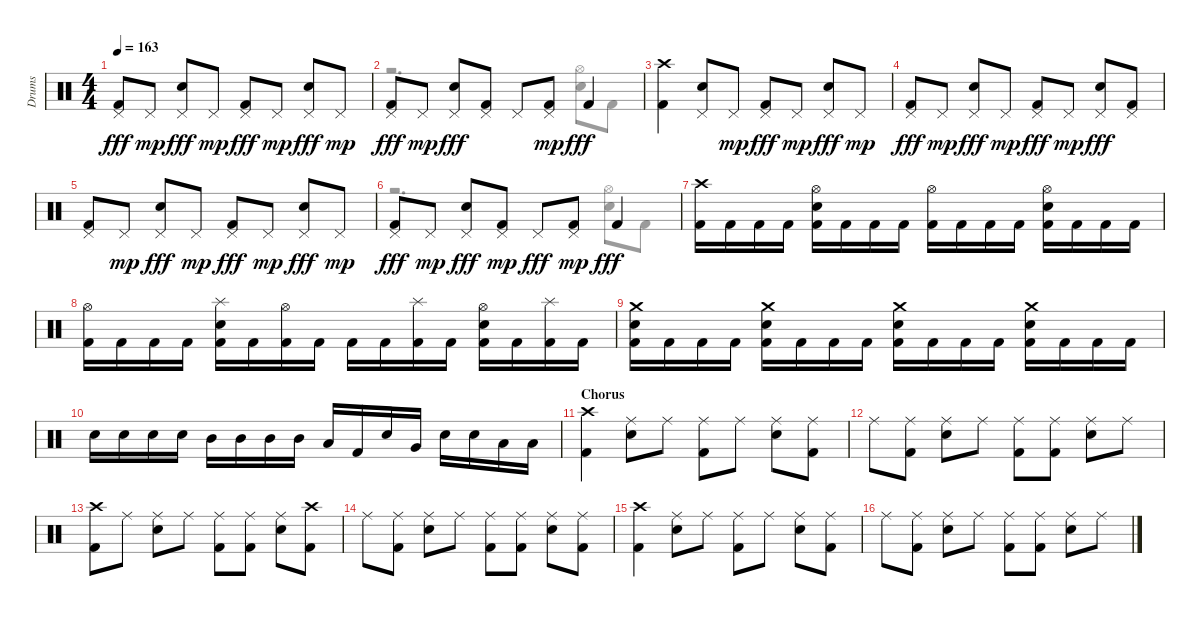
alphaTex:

\track ("Drums" "Drums") {instrument percussion}
\staff {score}
\articulation defaults
\voice
\ts (4 4)
\tempo 163
\clef neutral
\ks aminor
("Kick (hit) 2" "Pedal Hi-Hat (hit)").8{dy fff} "Pedal Hi-Hat (hit)".8{dy mp} ("Snare (hit) 2" "Pedal Hi-Hat (hit)").8{dy fff} "Pedal Hi-Hat (hit)".8{dy mp} ("Kick (hit) 2" "Pedal Hi-Hat (hit)").8{dy fff} "Pedal Hi-Hat (hit)".8{dy mp} ("Snare (hit) 2" "Pedal Hi-Hat (hit)").8{dy fff} "Pedal Hi-Hat (hit)".8{dy mp} |
("Kick (hit) 2" "Pedal Hi-Hat (hit)").8{dy fff} "Pedal Hi-Hat (hit)".8{dy mp} ("Snare (hit) 2" "Pedal Hi-Hat (hit)").8{dy fff} ("Kick (hit) 2" "Pedal Hi-Hat (hit)").8 "Pedal Hi-Hat (hit)".8 ("Pedal Hi-Hat (hit)" "Kick (hit) 2").8{dy mp} "Kick (hit) 2".4{dy fff} |
("Kick (hit) 2" "Crash high (hit)").4 ("Snare (hit) 2" "Pedal Hi-Hat (hit)").8 "Pedal Hi-Hat (hit)".8{dy mp} ("Kick (hit) 2" "Pedal Hi-Hat (hit)").8{dy fff} "Pedal Hi-Hat (hit)".8{dy mp} ("Snare (hit) 2" "Pedal Hi-Hat (hit)").8{dy fff} "Pedal Hi-Hat (hit)".8{dy mp} |
("Pedal Hi-Hat (hit)" "Kick (hit) 2").8{dy fff} "Pedal Hi-Hat (hit)".8{dy mp} ("Snare (hit) 2" "Pedal Hi-Hat (hit)").8{dy fff} "Pedal Hi-Hat (hit)".8{dy mp} ("Pedal Hi-Hat (hit)" "Kick (hit) 2").8{dy fff} "Pedal Hi-Hat (hit)".8{dy mp} ("Snare (hit) 2" "Pedal Hi-Hat (hit)").8{dy fff} ("Pedal Hi-Hat (hit)" "Kick (hit) 2").8 |
("Kick (hit) 2" "Pedal Hi-Hat (hit)").8 "Pedal Hi-Hat (hit)".8{dy mp} ("Pedal Hi-Hat (hit)" "Snare (hit) 2").8{dy fff} "Pedal Hi-Hat (hit)".8{dy mp} ("Kick (hit) 2" "Pedal Hi-Hat (hit)").8{dy fff} "Pedal Hi-Hat (hit)".8{dy mp} ("Snare (hit) 2" "Pedal Hi-Hat (hit)").8{dy fff} "Pedal Hi-Hat (hit)".8{dy mp} |
("Kick (hit) 2" "Pedal Hi-Hat (hit)").8{dy fff} "Pedal Hi-Hat (hit)".8{dy mp} ("Pedal Hi-Hat (hit)" "Snare (hit) 2").8{dy fff} ("Pedal Hi-Hat (hit)" "Kick (hit) 2").8{dy mp} "Pedal Hi-Hat (hit)".8{dy fff} ("Pedal Hi-Hat (hit)" "Kick (hit) 2").8{dy mp} "Kick (hit) 2".4{dy fff} |
("Kick (hit) 2" "Crash high (hit)").16 "Kick (hit) 2".16 "Kick (hit) 2".16 "Kick (hit) 2".16 ("Kick (hit) 2" "Hi-Hat (open)" "Snare (hit) 2").16 "Kick (hit) 2".16 "Kick (hit) 2".16 "Kick (hit) 2".16 ("Hi-Hat (open)" "Kick (hit) 2").16 "Kick (hit) 2".16 "Kick (hit) 2".16 "Kick (hit) 2".16 ("Hi-Hat (open)" "Snare (hit) 2" "Kick (hit) 2").16 "Kick (hit) 2".16 "Kick (hit) 2".16 "Kick (hit) 2".16 |
("Kick (hit) 2" "Hi-Hat (open)").16 "Kick (hit) 2".16 "Kick (hit) 2".16 "Kick (hit) 2".16 ("Snare (hit) 2" "Kick (hit) 2" "Splash (hit)").16 "Kick (hit) 2".16 ("Kick (hit) 2" "Hi-Hat (open)").16 "Kick (hit) 2".16 "Kick (hit) 2".16 "Kick (hit) 2".16 ("Splash (hit)" "Kick (hit) 2").16 "Kick (hit) 2".16 ("Kick (hit) 2" "Snare (hit) 2" "Hi-Hat (open)").16 "Kick (hit) 2".16 ("Kick (hit) 2" "Splash (hit)").16 "Kick (hit) 2".16 |
("Kick (hit) 2" "Snare (hit) 2" "Crash medium (hit)").16 "Kick (hit) 2".16 "Kick (hit) 2".16 "Kick (hit) 2".16 ("Kick (hit) 2" "Snare (hit) 2" "Crash medium (hit)").16 "Kick (hit) 2".16 "Kick (hit) 2".16 "Kick (hit) 2".16 ("Kick (hit) 2" "Snare (hit) 2" "Crash medium (hit)").16 "Kick (hit) 2".16 "Kick (hit) 2".16 "Kick (hit) 2".16 ("Snare (hit) 2" "Crash medium (hit)" "Kick (hit) 2").16 "Kick (hit) 2".16 "Kick (hit) 2".16 "Kick (hit) 2".16 |
"Snare (hit) 2".16 "Snare (hit) 2".16 "Snare (hit) 2".16 "Snare (hit) 2".16 "Mid Tom (hit)".16 "Mid Tom (hit)".16 "Mid Tom (hit)".16 "Mid Tom (hit)".16 "Low Tom (hit)".16 "Kick (hit) 2".16 "Snare (hit) 2".16 "Very Low Tom (hit)".16 "Snare (hit) 2".16 "Snare (hit) 2".16 "Low Floor Tom (hit)".16 "Low Floor Tom (hit)".16 |
\section ("" "Chorus")
("Crash high (hit)" "Kick (hit) 2").4 ("Ride (middle)" "Snare (hit) 2").8 "Ride (middle)".8 ("Kick (hit) 2" "Ride (middle)").8 "Ride (middle)".8 ("Ride (middle)" "Snare (hit) 2").8 ("Kick (hit) 2" "Ride (middle)").8 |
"Ride (middle)".8 ("Kick (hit) 2" "Ride (middle)").8 ("Snare (hit) 2" "Ride (middle)").8 "Ride (middle)".8 ("Kick (hit) 2" "Ride (middle)").8 ("Ride (middle)" "Kick (hit) 2").8 ("Snare (hit) 2" "Ride (middle)").8 "Ride (middle)".8 |
("Kick (hit) 2" "Crash high (hit)").8 "Ride (middle)".8 ("Ride (middle)" "Snare (hit) 2").8 "Ride (middle)".8 ("Kick (hit) 2" "Ride (middle)").8 ("Kick (hit) 2" "Ride (middle)").8 ("Snare (hit) 2" "Ride (middle)").8 ("Crash high (hit)" "Kick (hit) 2").8 |
"Ride (middle)".8 ("Kick (hit) 2" "Ride (middle)").8 ("Ride (middle)" "Snare (hit) 2").8 "Ride (middle)".8 ("Kick (hit) 2" "Ride (middle)").8 ("Kick (hit) 2" "Ride (middle)").8 ("Ride (middle)" "Snare (hit) 2").8 ("Ride (middle)" "Kick (hit) 2").8 |
("Kick (hit) 2" "Crash high (hit)").4 ("Ride (middle)" "Snare (hit) 2").8 "Ride (middle)".8 ("Kick (hit) 2" "Ride (middle)").8 "Ride (middle)".8 ("Ride (middle)" "Snare (hit) 2").8 ("Ride (middle)" "Kick (hit) 2").8 |
"Ride (middle)".8 ("Ride (middle)" "Kick (hit) 2").8 ("Ride (middle)" "Snare (hit) 2").8 "Ride (middle)".8 ("Kick (hit) 2" "Ride (middle)").8 ("Kick (hit) 2" "Ride (middle)").8 ("Snare (hit) 2" "Ride (middle)").8 "Ride (middle)".8
\voice
\clef neutral
\ottava regular
\simile none
\ks aminor
|
r.2{d} ("Snare (hit) 2" "Hi-Hat (open)").8 "Kick (hit) 2".8 |
|
|
|
r.2{d} ("Hi-Hat (open)" "Snare (hit) 2").8 "Kick (hit) 2".8 |
|
|
|
|
|
|
|
|
|
